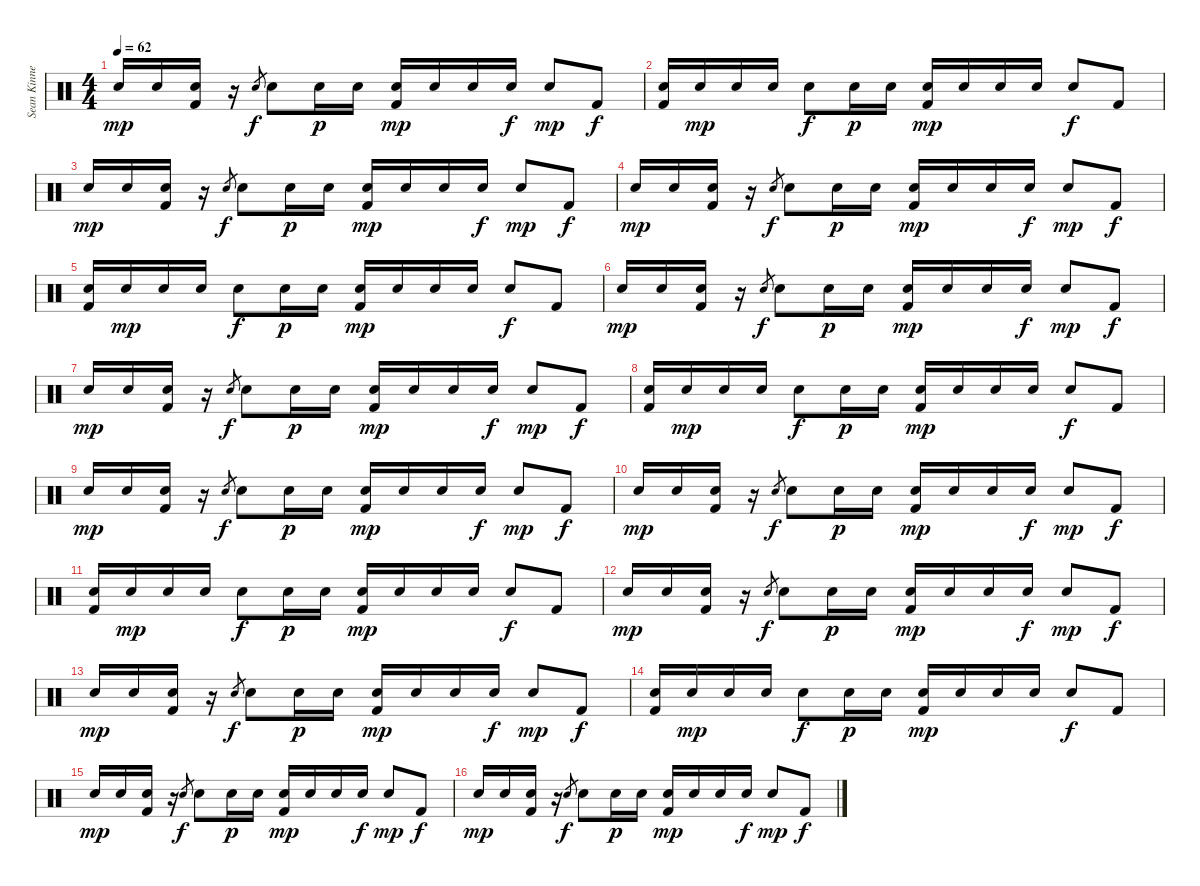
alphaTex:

\track ("Sean Kinney - Drums" "Sean Kinne") {instrument percussion}
\staff {score}
\articulation defaults
\ts (4 4)
\tempo 62
\clef neutral
\ks c "Electric Snare (hit)".16{dy mp} "Electric Snare (hit)".16
("Electric Snare (hit)" "Kick (hit) 2").16 r.16 "Electric Snare (hit)".8{gr dy f} "Electric Snare (hit)".8 "Electric Snare (hit)".16{dy p} "Electric Snare (hit)".16 ("Electric Snare (hit)" "Kick (hit) 2").16{dy mp} "Electric Snare (hit)".16 "Electric Snare (hit)".16 "Electric Snare (hit)".16{dy f} "Electric Snare (hit)".8{dy mp} "Kick (hit) 2".8{dy f} |
("Electric Snare (hit)" "Kick (hit) 2").16 "Electric Snare (hit)".16{dy mp} "Electric Snare (hit)".16 "Electric Snare (hit)".16 "Electric Snare (hit)".8{dy f} "Electric Snare (hit)".16{dy p} "Electric Snare (hit)".16 ("Electric Snare (hit)" "Kick (hit) 2").16{dy mp} "Electric Snare (hit)".16 "Electric Snare (hit)".16 "Electric Snare (hit)".16 "Electric Snare (hit)".8{dy f} "Kick (hit) 2".8 |
"Electric Snare (hit)".16{dy mp} "Electric Snare (hit)".16 ("Electric Snare (hit)" "Kick (hit) 2").16 r.16 "Electric Snare (hit)".8{gr dy f} "Electric Snare (hit)".8 "Electric Snare (hit)".16{dy p} "Electric Snare (hit)".16 ("Electric Snare (hit)" "Kick (hit) 2").16{dy mp} "Electric Snare (hit)".16 "Electric Snare (hit)".16 "Electric Snare (hit)".16{dy f} "Electric Snare (hit)".8{dy mp} "Kick (hit) 2".8{dy f} |
"Electric Snare (hit)".16{dy mp} "Electric Snare (hit)".16 ("Electric Snare (hit)" "Kick (hit) 2").16 r.16 "Electric Snare (hit)".8{gr dy f} "Electric Snare (hit)".8 "Electric Snare (hit)".16{dy p} "Electric Snare (hit)".16 ("Electric Snare (hit)" "Kick (hit) 2").16{dy mp} "Electric Snare (hit)".16 "Electric Snare (hit)".16 "Electric Snare (hit)".16{dy f} "Electric Snare (hit)".8{dy mp} "Kick (hit) 2".8{dy f} |
("Electric Snare (hit)" "Kick (hit) 2").16 "Electric Snare (hit)".16{dy mp} "Electric Snare (hit)".16 "Electric Snare (hit)".16 "Electric Snare (hit)".8{dy f} "Electric Snare (hit)".16{dy p} "Electric Snare (hit)".16 ("Electric Snare (hit)" "Kick (hit) 2").16{dy mp} "Electric Snare (hit)".16 "Electric Snare (hit)".16 "Electric Snare (hit)".16 "Electric Snare (hit)".8{dy f} "Kick (hit) 2".8 |
"Electric Snare (hit)".16{dy mp} "Electric Snare (hit)".16 ("Electric Snare (hit)" "Kick (hit) 2").16 r.16 "Electric Snare (hit)".8{gr dy f} "Electric Snare (hit)".8 "Electric Snare (hit)".16{dy p} "Electric Snare (hit)".16 ("Electric Snare (hit)" "Kick (hit) 2").16{dy mp} "Electric Snare (hit)".16 "Electric Snare (hit)".16 "Electric Snare (hit)".16{dy f} "Electric Snare (hit)".8{dy mp} "Kick (hit) 2".8{dy f} |
"Electric Snare (hit)".16{dy mp} "Electric Snare (hit)".16 ("Electric Snare (hit)" "Kick (hit) 2").16 r.16 "Electric Snare (hit)".8{gr dy f} "Electric Snare (hit)".8 "Electric Snare (hit)".16{dy p} "Electric Snare (hit)".16 ("Electric Snare (hit)" "Kick (hit) 2").16{dy mp} "Electric Snare (hit)".16 "Electric Snare (hit)".16 "Electric Snare (hit)".16{dy f} "Electric Snare (hit)".8{dy mp} "Kick (hit) 2".8{dy f} |
("Electric Snare (hit)" "Kick (hit) 2").16 "Electric Snare (hit)".16{dy mp} "Electric Snare (hit)".16 "Electric Snare (hit)".16 "Electric Snare (hit)".8{dy f} "Electric Snare (hit)".16{dy p} "Electric Snare (hit)".16 ("Electric Snare (hit)" "Kick (hit) 2").16{dy mp} "Electric Snare (hit)".16 "Electric Snare (hit)".16 "Electric Snare (hit)".16 "Electric Snare (hit)".8{dy f} "Kick (hit) 2".8 |
"Electric Snare (hit)".16{dy mp} "Electric Snare (hit)".16 ("Electric Snare (hit)" "Kick (hit) 2").16 r.16 "Electric Snare (hit)".8{gr dy f} "Electric Snare (hit)".8 "Electric Snare (hit)".16{dy p} "Electric Snare (hit)".16 ("Electric Snare (hit)" "Kick (hit) 2").16{dy mp} "Electric Snare (hit)".16 "Electric Snare (hit)".16 "Electric Snare (hit)".16{dy f} "Electric Snare (hit)".8{dy mp} "Kick (hit) 2".8{dy f} |
"Electric Snare (hit)".16{dy mp} "Electric Snare (hit)".16 ("Electric Snare (hit)" "Kick (hit) 2").16 r.16 "Electric Snare (hit)".8{gr dy f} "Electric Snare (hit)".8 "Electric Snare (hit)".16{dy p} "Electric Snare (hit)".16 ("Electric Snare (hit)" "Kick (hit) 2").16{dy mp} "Electric Snare (hit)".16 "Electric Snare (hit)".16 "Electric Snare (hit)".16{dy f} "Electric Snare (hit)".8{dy mp} "Kick (hit) 2".8{dy f} |
("Electric Snare (hit)" "Kick (hit) 2").16 "Electric Snare (hit)".16{dy mp} "Electric Snare (hit)".16 "Electric Snare (hit)".16 "Electric Snare (hit)".8{dy f} "Electric Snare (hit)".16{dy p} "Electric Snare (hit)".16 ("Electric Snare (hit)" "Kick (hit) 2").16{dy mp} "Electric Snare (hit)".16 "Electric Snare (hit)".16 "Electric Snare (hit)".16 "Electric Snare (hit)".8{dy f} "Kick (hit) 2".8 |
"Electric Snare (hit)".16{dy mp} "Electric Snare (hit)".16 ("Electric Snare (hit)" "Kick (hit) 2").16 r.16 "Electric Snare (hit)".8{gr dy f} "Electric Snare (hit)".8 "Electric Snare (hit)".16{dy p} "Electric Snare (hit)".16 ("Electric Snare (hit)" "Kick (hit) 2").16{dy mp} "Electric Snare (hit)".16 "Electric Snare (hit)".16 "Electric Snare (hit)".16{dy f} "Electric Snare (hit)".8{dy mp} "Kick (hit) 2".8{dy f} |
"Electric Snare (hit)".16{dy mp} "Electric Snare (hit)".16 ("Electric Snare (hit)" "Kick (hit) 2").16 r.16 "Electric Snare (hit)".8{gr dy f} "Electric Snare (hit)".8 "Electric Snare (hit)".16{dy p} "Electric Snare (hit)".16 ("Electric Snare (hit)" "Kick (hit) 2").16{dy mp} "Electric Snare (hit)".16 "Electric Snare (hit)".16 "Electric Snare (hit)".16{dy f} "Electric Snare (hit)".8{dy mp} "Kick (hit) 2".8{dy f} |
("Electric Snare (hit)" "Kick (hit) 2").16 "Electric Snare (hit)".16{dy mp} "Electric Snare (hit)".16 "Electric Snare (hit)".16 "Electric Snare (hit)".8{dy f} "Electric Snare (hit)".16{dy p} "Electric Snare (hit)".16 ("Electric Snare (hit)" "Kick (hit) 2").16{dy mp} "Electric Snare (hit)".16 "Electric Snare (hit)".16 "Electric Snare (hit)".16 "Electric Snare (hit)".8{dy f} "Kick (hit) 2".8 |
"Electric Snare (hit)".16{dy mp} "Electric Snare (hit)".16 ("Electric Snare (hit)" "Kick (hit) 2").16 r.16 "Electric Snare (hit)".8{gr dy f} "Electric Snare (hit)".8 "Electric Snare (hit)".16{dy p} "Electric Snare (hit)".16 ("Electric Snare (hit)" "Kick (hit) 2").16{dy mp} "Electric Snare (hit)".16 "Electric Snare (hit)".16 "Electric Snare (hit)".16{dy f} "Electric Snare (hit)".8{dy mp} "Kick (hit) 2".8{dy f} |
"Electric Snare (hit)".16{dy mp} "Electric Snare (hit)".16 ("Electric Snare (hit)" "Kick (hit) 2").16 r.16 "Electric Snare (hit)".8{gr dy f} "Electric Snare (hit)".8 "Electric Snare (hit)".16{dy p} "Electric Snare (hit)".16 ("Electric Snare (hit)" "Kick (hit) 2").16{dy mp} "Electric Snare (hit)".16 "Electric Snare (hit)".16 "Electric Snare (hit)".16{dy f} "Electric Snare (hit)".8{dy mp} "Kick (hit) 2".8{dy f}
